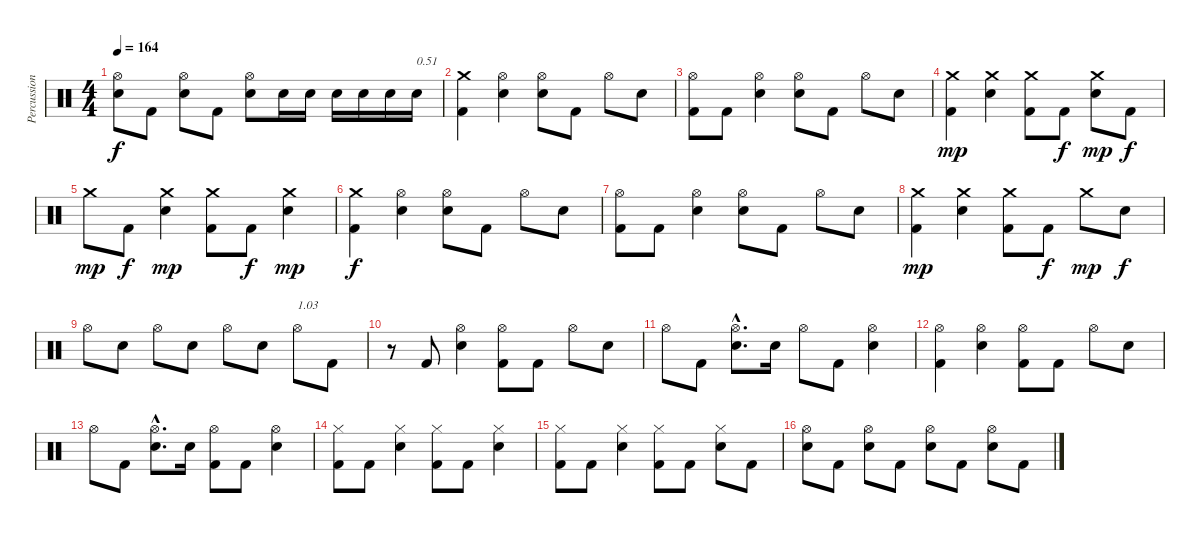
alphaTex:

\track ("Percussions" "Percussion") {instrument percussion}
\staff {score}
\articulation defaults
\ts (4 4)
\tempo 164
\clef neutral
\ks c
("Snare (hit) 2" "Hi-Hat (open)").8{dy f} "Kick (hit) 2".8 ("Snare (hit) 2" "Hi-Hat (open)").8 "Kick (hit) 2".8 ("Snare (hit) 2" "Hi-Hat (open)").8 "Snare (hit) 2".16 "Snare (hit) 2".16 "Snare (hit) 2".16 "Snare (hit) 2".16 "Snare (hit) 2".16 "Snare (hit) 2".16{txt "0.51"} |
("Kick (hit) 2" "Crash medium (hit)").4 ("Snare (hit) 2" "Hi-Hat (open)").4 ("Snare (hit) 2" "Hi-Hat (open)").8 "Kick (hit) 2".8 "Hi-Hat (open)".8 "Snare (hit) 2".8 |
("Kick (hit) 2" "Hi-Hat (open)").8 "Kick (hit) 2".8 ("Snare (hit) 2" "Hi-Hat (open)").4 ("Snare (hit) 2" "Hi-Hat (open)").8 "Kick (hit) 2".8 "Hi-Hat (open)".8 "Snare (hit) 2".8 |
("Kick (hit) 2" "Crash medium (hit)").4{dy mp} ("Snare (hit) 2" "Crash medium (hit)").4 ("Kick (hit) 2" "Crash medium (hit)").8 "Kick (hit) 2".8{dy f} ("Snare (hit) 2" "Crash medium (hit)").8{dy mp} "Kick (hit) 2".8{dy f} |
"Crash medium (hit)".8{dy mp} "Kick (hit) 2".8{dy f} ("Snare (hit) 2" "Crash medium (hit)").4{dy mp} ("Kick (hit) 2" "Crash medium (hit)").8 "Kick (hit) 2".8{dy f} ("Snare (hit) 2" "Crash medium (hit)").4{dy mp} |
("Kick (hit) 2" "Crash medium (hit)").4{dy f} ("Snare (hit) 2" "Hi-Hat (open)").4 ("Snare (hit) 2" "Hi-Hat (open)").8 "Kick (hit) 2".8 "Hi-Hat (open)".8 "Snare (hit) 2".8 |
("Kick (hit) 2" "Hi-Hat (open)").8 "Kick (hit) 2".8 ("Snare (hit) 2" "Hi-Hat (open)").4 ("Snare (hit) 2" "Hi-Hat (open)").8 "Kick (hit) 2".8 "Hi-Hat (open)".8 "Snare (hit) 2".8 |
("Kick (hit) 2" "Crash medium (hit)").4{dy mp} ("Snare (hit) 2" "Crash medium (hit)").4 ("Kick (hit) 2" "Crash medium (hit)").8 "Kick (hit) 2".8{dy f} "Crash medium (hit)".8{dy mp} "Snare (hit) 2".8{dy f} |
"Hi-Hat (open)".8 "Snare (hit) 2".8 "Hi-Hat (open)".8 "Snare (hit) 2".8 "Hi-Hat (open)".8 "Snare (hit) 2".8 "Hi-Hat (open)".8{txt "1.03"} "Kick (hit) 2".8 |
r.8 "Kick (hit) 2".8 ("Snare (hit) 2" "Hi-Hat (open)").4 ("Kick (hit) 2" "Hi-Hat (open)").8 "Kick (hit) 2".8 "Hi-Hat (open)".8 "Snare (hit) 2".8 |
"Hi-Hat (open)".8 "Kick (hit) 2".8 ("Snare (hit) 2"{hac} "Hi-Hat (open)"{hac}).8{d} "Snare (hit) 2".16 "Hi-Hat (open)".8 "Kick (hit) 2".8 ("Snare (hit) 2" "Hi-Hat (open)").4 |
("Kick (hit) 2" "Hi-Hat (open)").4 ("Snare (hit) 2" "Hi-Hat (open)").4 ("Kick (hit) 2" "Hi-Hat (open)").8 "Kick (hit) 2".8 "Hi-Hat (open)".8 "Snare (hit) 2".8 |
"Hi-Hat (open)".8 "Kick (hit) 2".8 ("Snare (hit) 2"{hac} "Hi-Hat (open)"{hac}).8{d} "Snare (hit) 2".16 ("Kick (hit) 2" "Hi-Hat (open)").8 "Kick (hit) 2".8 ("Snare (hit) 2" "Hi-Hat (open)").4 |
("Kick (hit) 2" "Hi-Hat (closed)").8 "Kick (hit) 2".8 ("Snare (hit) 2" "Hi-Hat (closed)").4 ("Kick (hit) 2" "Hi-Hat (closed)").8 "Kick (hit) 2".8 ("Snare (hit) 2" "Hi-Hat (closed)").4 |
("Kick (hit) 2" "Hi-Hat (closed)").8 "Kick (hit) 2".8 ("Snare (hit) 2" "Hi-Hat (closed)").4 ("Kick (hit) 2" "Hi-Hat (closed)").8 "Kick (hit) 2".8 ("Snare (hit) 2" "Hi-Hat (closed)").8 "Kick (hit) 2".8 |
("Snare (hit) 2" "Hi-Hat (open)").8 "Kick (hit) 2".8 ("Snare (hit) 2" "Hi-Hat (open)").8 "Kick (hit) 2".8 ("Snare (hit) 2" "Hi-Hat (open)").8 "Kick (hit) 2".8 ("Snare (hit) 2" "Hi-Hat (open)").8 "Kick (hit) 2".8
